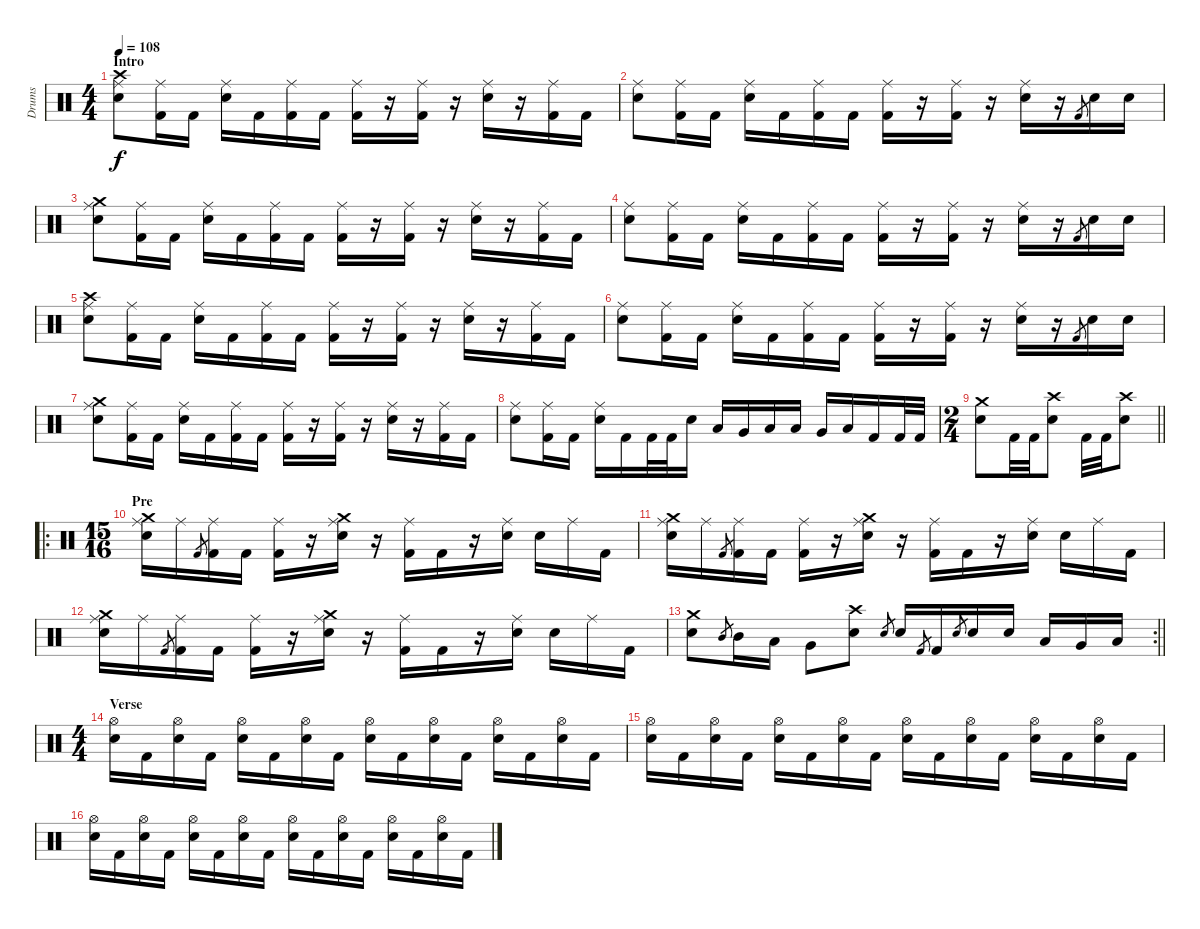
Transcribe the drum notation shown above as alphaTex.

\track ("Drums" "Drums") {instrument percussion}
\staff {score}
\articulation defaults
\ts (4 4)
\section ("" "Intro")
\tempo 108
\clef neutral
\ks c
("Crash high (hit)" "Ride (middle)" "Electric Snare (hit)").8{dy f} ("Ride (middle)" "Kick (hit) 2").16 "Kick (hit) 2".16 ("Ride (middle)" "Electric Snare (hit)").16 "Kick (hit) 2".16 ("Ride (middle)" "Kick (hit) 2").16 "Kick (hit) 2".16 ("Ride (middle)" "Kick (hit) 2").16 r.16 ("Ride (middle)" "Kick (hit) 2").16 r.16 ("Ride (middle)" "Electric Snare (hit)").16 r.16 ("Ride (middle)" "Kick (hit) 2").16 "Kick (hit) 2".16 |
("Ride (middle)" "Electric Snare (hit)").8 ("Ride (middle)" "Kick (hit) 2").16 "Kick (hit) 2".16 ("Ride (middle)" "Electric Snare (hit)").16 "Kick (hit) 2".16 ("Ride (middle)" "Kick (hit) 2").16 "Kick (hit) 2".16 ("Ride (middle)" "Kick (hit) 2").16 r.16 ("Ride (middle)" "Kick (hit) 2").16 r.16 ("Ride (middle)" "Electric Snare (hit)").16 r.16 "Kick (hit) 2".8{gr} "Electric Snare (hit)".16 "Electric Snare (hit)".16 |
("Crash medium (hit)" "Ride (middle)" "Electric Snare (hit)").8 ("Ride (middle)" "Kick (hit) 2").16 "Kick (hit) 2".16 ("Ride (middle)" "Electric Snare (hit)").16 "Kick (hit) 2".16 ("Ride (middle)" "Kick (hit) 2").16 "Kick (hit) 2".16 ("Ride (middle)" "Kick (hit) 2").16 r.16 ("Ride (middle)" "Kick (hit) 2").16 r.16 ("Ride (middle)" "Electric Snare (hit)").16 r.16 ("Ride (middle)" "Kick (hit) 2").16 "Kick (hit) 2".16 |
("Ride (middle)" "Electric Snare (hit)").8 ("Ride (middle)" "Kick (hit) 2").16 "Kick (hit) 2".16 ("Ride (middle)" "Electric Snare (hit)").16 "Kick (hit) 2".16 ("Ride (middle)" "Kick (hit) 2").16 "Kick (hit) 2".16 ("Ride (middle)" "Kick (hit) 2").16 r.16 ("Ride (middle)" "Kick (hit) 2").16 r.16 ("Ride (middle)" "Electric Snare (hit)").16 r.16 "Kick (hit) 2".8{gr} "Electric Snare (hit)".16 "Electric Snare (hit)".16 |
("Crash high (hit)" "Ride (middle)" "Electric Snare (hit)").8 ("Ride (middle)" "Kick (hit) 2").16 "Kick (hit) 2".16 ("Ride (middle)" "Electric Snare (hit)").16 "Kick (hit) 2".16 ("Ride (middle)" "Kick (hit) 2").16 "Kick (hit) 2".16 ("Ride (middle)" "Kick (hit) 2").16 r.16 ("Ride (middle)" "Kick (hit) 2").16 r.16 ("Ride (middle)" "Electric Snare (hit)").16 r.16 ("Ride (middle)" "Kick (hit) 2").16 "Kick (hit) 2".16 |
("Ride (middle)" "Electric Snare (hit)").8 ("Ride (middle)" "Kick (hit) 2").16 "Kick (hit) 2".16 ("Ride (middle)" "Electric Snare (hit)").16 "Kick (hit) 2".16 ("Ride (middle)" "Kick (hit) 2").16 "Kick (hit) 2".16 ("Ride (middle)" "Kick (hit) 2").16 r.16 ("Ride (middle)" "Kick (hit) 2").16 r.16 ("Ride (middle)" "Electric Snare (hit)").16 r.16 "Kick (hit) 2".8{gr} "Electric Snare (hit)".16 "Electric Snare (hit)".16 |
("Crash medium (hit)" "Ride (middle)" "Electric Snare (hit)").8 ("Ride (middle)" "Kick (hit) 2").16 "Kick (hit) 2".16 ("Ride (middle)" "Electric Snare (hit)").16 "Kick (hit) 2".16 ("Ride (middle)" "Kick (hit) 2").16 "Kick (hit) 2".16 ("Ride (middle)" "Kick (hit) 2").16 r.16 ("Ride (middle)" "Kick (hit) 2").16 r.16 ("Ride (middle)" "Electric Snare (hit)").16 r.16 ("Ride (middle)" "Kick (hit) 2").16 "Kick (hit) 2".16 |
("Ride (middle)" "Electric Snare (hit)").8 ("Ride (middle)" "Kick (hit) 2").16 "Kick (hit) 2".16 ("Ride (middle)" "Electric Snare (hit)").16 "Kick (hit) 2".16 "Kick (hit) 2".32 "Kick (hit) 2".32 "Electric Snare (hit)".16 "Low Tom (hit)".16 "Very Low Tom (hit)".16 "Low Floor Tom (hit)".16 "Low Tom (hit)".16 "Very Low Tom (hit)".16 "Low Floor Tom (hit)".16 "Kick (hit) 2".16 "Kick (hit) 2".32 "Kick (hit) 2".32 |
\ts (2 4)
\barLineRight lightlight
("Crash medium (hit)" "Electric Snare (hit)").8 "Kick (hit) 2".32 "Kick (hit) 2".32 ("Crash high (hit)" "Electric Snare (hit)").8 "Kick (hit) 2".32 "Kick (hit) 2".32 ("Crash high (hit)" "Electric Snare (hit)").8 |
\ro
\ts (15 16)
\section ("" "Pre")
("Crash medium (hit)" "Ride (middle)" "Electric Snare (hit)").16 "Ride (middle)".16 "Kick (hit) 2".8{gr} ("Ride (middle)" "Kick (hit) 2").16 "Kick (hit) 2".16 ("Ride (middle)" "Kick (hit) 2").16 r.16 ("Crash medium (hit)" "Ride (middle)" "Electric Snare (hit)").16 r.16 ("Ride (middle)" "Kick (hit) 2").16 "Kick (hit) 2".16 r.16 ("Ride (middle)" "Electric Snare (hit)").16 "Electric Snare (hit)".16 "Ride (middle)".16 "Kick (hit) 2".16 |
("Crash medium (hit)" "Ride (middle)" "Electric Snare (hit)").16 "Ride (middle)".16 "Kick (hit) 2".8{gr} ("Ride (middle)" "Kick (hit) 2").16 "Kick (hit) 2".16 ("Ride (middle)" "Kick (hit) 2").16 r.16 ("Crash medium (hit)" "Ride (middle)" "Electric Snare (hit)").16 r.16 ("Ride (middle)" "Kick (hit) 2").16 "Kick (hit) 2".16 r.16 ("Ride (middle)" "Electric Snare (hit)").16 "Electric Snare (hit)".16 "Ride (middle)".16 "Kick (hit) 2".16 |
("Crash medium (hit)" "Ride (middle)" "Electric Snare (hit)").16 "Ride (middle)".16 "Kick (hit) 2".8{gr} ("Ride (middle)" "Kick (hit) 2").16 "Kick (hit) 2".16 ("Ride (middle)" "Kick (hit) 2").16 r.16 ("Crash medium (hit)" "Ride (middle)" "Electric Snare (hit)").16 r.16 ("Ride (middle)" "Kick (hit) 2").16 "Kick (hit) 2".16 r.16 ("Ride (middle)" "Electric Snare (hit)").16 "Electric Snare (hit)".16 "Ride (middle)".16 "Kick (hit) 2".16 |
\rc 2
\barLineRight lightlight
("Crash medium (hit)" "Electric Snare (hit)").8 "Mid Tom (hit)".8{gr} "Mid Tom (hit)".16 "Low Tom (hit)".16 "Very Low Tom (hit)".8 ("Crash high (hit)" "Electric Snare (hit)").8 "Electric Snare (hit)".8{gr} "Electric Snare (hit)".16 "Kick (hit) 2".8{gr} "Kick (hit) 2".16 "Electric Snare (hit)".8{gr} "Electric Snare (hit)".16 "Electric Snare (hit)".16 "Low Tom (hit)".16 "Very Low Tom (hit)".16 "Low Floor Tom (hit)".16 |
\ts (4 4)
\section ("" "Verse")
("Hi-Hat (open)" "Electric Snare (hit)").16 "Kick (hit) 2".16 ("Hi-Hat (open)" "Electric Snare (hit)").16 "Kick (hit) 2".16 ("Hi-Hat (open)" "Electric Snare (hit)").16 "Kick (hit) 2".16 ("Hi-Hat (open)" "Electric Snare (hit)").16 "Kick (hit) 2".16 ("Hi-Hat (open)" "Electric Snare (hit)").16 "Kick (hit) 2".16 ("Hi-Hat (open)" "Electric Snare (hit)").16 "Kick (hit) 2".16 ("Hi-Hat (open)" "Electric Snare (hit)").16 "Kick (hit) 2".16 ("Hi-Hat (open)" "Electric Snare (hit)").16 "Kick (hit) 2".16 |
("Hi-Hat (open)" "Electric Snare (hit)").16 "Kick (hit) 2".16 ("Hi-Hat (open)" "Electric Snare (hit)").16 "Kick (hit) 2".16 ("Hi-Hat (open)" "Electric Snare (hit)").16 "Kick (hit) 2".16 ("Hi-Hat (open)" "Electric Snare (hit)").16 "Kick (hit) 2".16 ("Hi-Hat (open)" "Electric Snare (hit)").16 "Kick (hit) 2".16 ("Hi-Hat (open)" "Electric Snare (hit)").16 "Kick (hit) 2".16 ("Hi-Hat (open)" "Electric Snare (hit)").16 "Kick (hit) 2".16 ("Hi-Hat (open)" "Electric Snare (hit)").16 "Kick (hit) 2".16 |
("Hi-Hat (open)" "Electric Snare (hit)").16 "Kick (hit) 2".16 ("Hi-Hat (open)" "Electric Snare (hit)").16 "Kick (hit) 2".16 ("Hi-Hat (open)" "Electric Snare (hit)").16 "Kick (hit) 2".16 ("Hi-Hat (open)" "Electric Snare (hit)").16 "Kick (hit) 2".16 ("Hi-Hat (open)" "Electric Snare (hit)").16 "Kick (hit) 2".16 ("Hi-Hat (open)" "Electric Snare (hit)").16 "Kick (hit) 2".16 ("Hi-Hat (open)" "Electric Snare (hit)").16 "Kick (hit) 2".16 ("Hi-Hat (open)" "Electric Snare (hit)").16 "Kick (hit) 2".16
